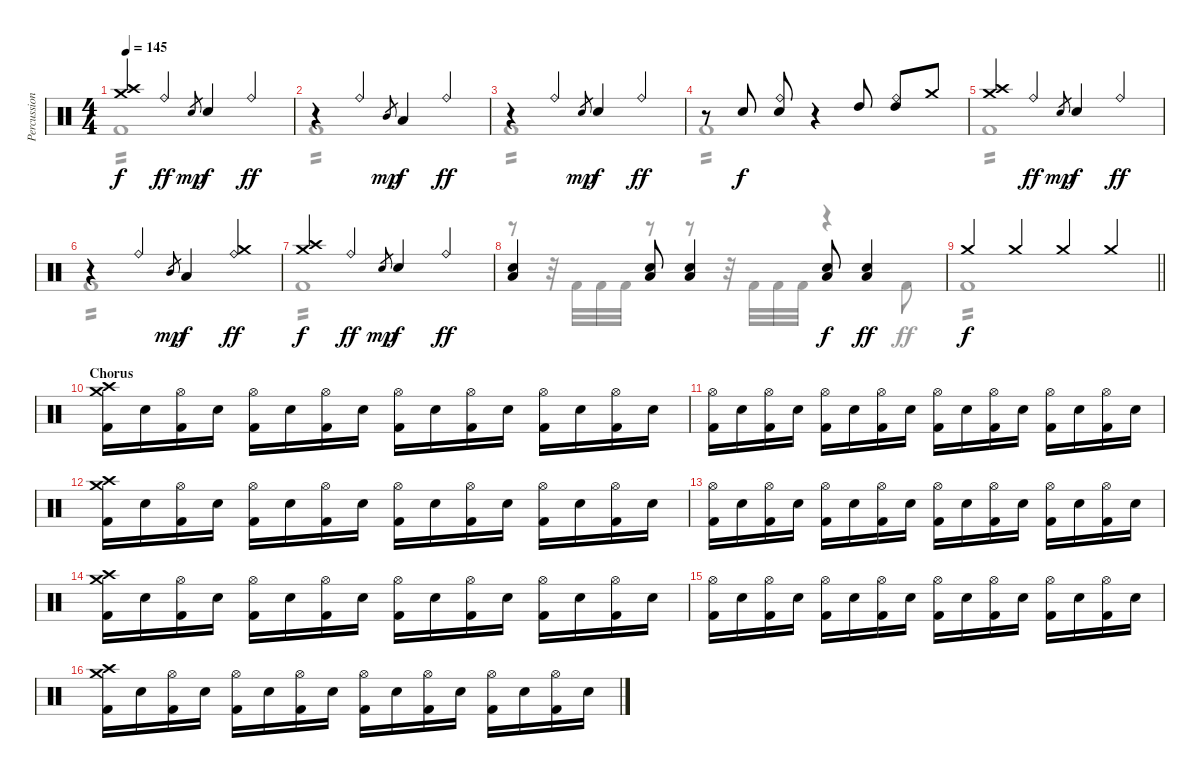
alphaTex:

\track ("Percussion" "Percussion") {instrument percussion}
\staff {score}
\articulation defaults
\voice
\ts (4 4)
\tempo 145
\clef neutral
\ks c
("Crash medium (hit)" "Crash high (hit)").4{dy f} "Ride (bell)".4{dy ff} "Electric Snare (hit)".8{gr dy mp} "Electric Snare (hit)".4{dy f} "Ride (bell)".4{dy ff} |
r.4 "Ride (bell)".4 "Mid Tom (hit)".8{gr dy mp} "Low Tom (hit)".4{dy f} "Ride (bell)".4{dy ff} |
r.4 "Ride (bell)".4 "Electric Snare (hit)".8{gr dy mp} "Electric Snare (hit)".4{dy f} "Ride (bell)".4{dy ff} |
r.8 "Electric Snare (hit)".8{dy f} ("Ride (bell)" "Electric Snare (hit)").8 r.4 "High Tom (hit)".8 ("Ride (bell)" "High Tom (hit)").8 "Crash medium (hit)".8 |
("Crash medium (hit)" "Crash high (hit)").4 "Ride (bell)".4{dy ff} "Electric Snare (hit)".8{gr dy mp} "Electric Snare (hit)".4{dy f} "Ride (bell)".4{dy ff} |
r.4 "Ride (bell)".4 "Mid Tom (hit)".8{gr dy mp} "Low Tom (hit)".4{dy f} ("Ride (bell)" "Crash medium (hit)").4{dy ff} |
("Crash medium (hit)" "Crash high (hit)").4{dy f} "Ride (bell)".4{dy ff} "Electric Snare (hit)".8{gr dy mp} "Electric Snare (hit)".4{dy f} "Ride (bell)".4{dy ff} |
("Low Floor Tom (hit)" "Electric Snare (hit)").4 ("Low Floor Tom (hit)" "Electric Snare (hit)").8 ("Low Floor Tom (hit)" "Electric Snare (hit)").4 ("Low Floor Tom (hit)" "Electric Snare (hit)").8{dy f} ("Low Floor Tom (hit)" "Electric Snare (hit)").4{dy ff} |
\barLineRight lightlight "Crash medium (hit)".4{dy f} "Crash medium (hit)".4 "Crash medium (hit)".4 "Crash medium (hit)".4
|
\section ("" "Chorus")
("Crash medium (hit)" "Crash high (hit)" "Kick (hit) 2").16 "Electric Snare (hit)".16 ("Hi-Hat (open)" "Kick (hit) 2").16 "Electric Snare (hit)".16 ("Hi-Hat (open)" "Kick (hit) 2").16 "Electric Snare (hit)".16 ("Hi-Hat (open)" "Kick (hit) 2").16 "Electric Snare (hit)".16 ("Hi-Hat (open)" "Kick (hit) 2").16 "Electric Snare (hit)".16 ("Hi-Hat (open)" "Kick (hit) 2").16 "Electric Snare (hit)".16 ("Hi-Hat (open)" "Kick (hit) 2").16 "Electric Snare (hit)".16 ("Hi-Hat (open)" "Kick (hit) 2").16 "Electric Snare (hit)".16 |
("Hi-Hat (open)" "Kick (hit) 2").16 "Electric Snare (hit)".16 ("Hi-Hat (open)" "Kick (hit) 2").16 "Electric Snare (hit)".16 ("Hi-Hat (open)" "Kick (hit) 2").16 "Electric Snare (hit)".16 ("Hi-Hat (open)" "Kick (hit) 2").16 "Electric Snare (hit)".16 ("Hi-Hat (open)" "Kick (hit) 2").16 "Electric Snare (hit)".16 ("Hi-Hat (open)" "Kick (hit) 2").16 "Electric Snare (hit)".16 ("Hi-Hat (open)" "Kick (hit) 2").16 "Electric Snare (hit)".16 ("Hi-Hat (open)" "Kick (hit) 2").16 "Electric Snare (hit)".16 |
("Crash medium (hit)" "Crash high (hit)" "Kick (hit) 2").16 "Electric Snare (hit)".16 ("Hi-Hat (open)" "Kick (hit) 2").16 "Electric Snare (hit)".16 ("Hi-Hat (open)" "Kick (hit) 2").16 "Electric Snare (hit)".16 ("Hi-Hat (open)" "Kick (hit) 2").16 "Electric Snare (hit)".16 ("Hi-Hat (open)" "Kick (hit) 2").16 "Electric Snare (hit)".16 ("Hi-Hat (open)" "Kick (hit) 2").16 "Electric Snare (hit)".16 ("Hi-Hat (open)" "Kick (hit) 2").16 "Electric Snare (hit)".16 ("Hi-Hat (open)" "Kick (hit) 2").16 "Electric Snare (hit)".16 |
("Hi-Hat (open)" "Kick (hit) 2").16 "Electric Snare (hit)".16 ("Hi-Hat (open)" "Kick (hit) 2").16 "Electric Snare (hit)".16 ("Hi-Hat (open)" "Kick (hit) 2").16 "Electric Snare (hit)".16 ("Hi-Hat (open)" "Kick (hit) 2").16 "Electric Snare (hit)".16 ("Hi-Hat (open)" "Kick (hit) 2").16 "Electric Snare (hit)".16 ("Hi-Hat (open)" "Kick (hit) 2").16 "Electric Snare (hit)".16 ("Hi-Hat (open)" "Kick (hit) 2").16 "Electric Snare (hit)".16 ("Hi-Hat (open)" "Kick (hit) 2").16 "Electric Snare (hit)".16 |
("Crash medium (hit)" "Crash high (hit)" "Kick (hit) 2").16 "Electric Snare (hit)".16 ("Hi-Hat (open)" "Kick (hit) 2").16 "Electric Snare (hit)".16 ("Hi-Hat (open)" "Kick (hit) 2").16 "Electric Snare (hit)".16 ("Hi-Hat (open)" "Kick (hit) 2").16 "Electric Snare (hit)".16 ("Hi-Hat (open)" "Kick (hit) 2").16 "Electric Snare (hit)".16 ("Hi-Hat (open)" "Kick (hit) 2").16 "Electric Snare (hit)".16 ("Hi-Hat (open)" "Kick (hit) 2").16 "Electric Snare (hit)".16 ("Hi-Hat (open)" "Kick (hit) 2").16 "Electric Snare (hit)".16 |
("Hi-Hat (open)" "Kick (hit) 2").16 "Electric Snare (hit)".16 ("Hi-Hat (open)" "Kick (hit) 2").16 "Electric Snare (hit)".16 ("Hi-Hat (open)" "Kick (hit) 2").16 "Electric Snare (hit)".16 ("Hi-Hat (open)" "Kick (hit) 2").16 "Electric Snare (hit)".16 ("Hi-Hat (open)" "Kick (hit) 2").16 "Electric Snare (hit)".16 ("Hi-Hat (open)" "Kick (hit) 2").16 "Electric Snare (hit)".16 ("Hi-Hat (open)" "Kick (hit) 2").16 "Electric Snare (hit)".16 ("Hi-Hat (open)" "Kick (hit) 2").16 "Electric Snare (hit)".16 |
("Crash medium (hit)" "Crash high (hit)" "Kick (hit) 2").16 "Electric Snare (hit)".16 ("Hi-Hat (open)" "Kick (hit) 2").16 "Electric Snare (hit)".16 ("Hi-Hat (open)" "Kick (hit) 2").16 "Electric Snare (hit)".16 ("Hi-Hat (open)" "Kick (hit) 2").16 "Electric Snare (hit)".16 ("Hi-Hat (open)" "Kick (hit) 2").16 "Electric Snare (hit)".16 ("Hi-Hat (open)" "Kick (hit) 2").16 "Electric Snare (hit)".16 ("Hi-Hat (open)" "Kick (hit) 2").16 "Electric Snare (hit)".16 ("Hi-Hat (open)" "Kick (hit) 2").16 "Electric Snare (hit)".16
\voice
\clef neutral
\ottava regular
\simile none
\ks c "Kick (hit) 2".1{tp 2 dy f}
|
"Kick (hit) 2".1{tp 2} |
"Kick (hit) 2".1{tp 2} |
"Kick (hit) 2".1{tp 2} |
"Kick (hit) 2".1{tp 2} |
"Kick (hit) 2".1{tp 2} |
"Kick (hit) 2".1{tp 2} |
r.8 r.32 "Kick (hit) 2".32 "Kick (hit) 2".32 "Kick (hit) 2".32 r.8 r.8 r.32 "Kick (hit) 2".32 "Kick (hit) 2".32 "Kick (hit) 2".32 r.4 "Kick (hit) 2".8{dy ff} |
\barLineRight lightlight "Kick (hit) 2".1{tp 2 dy f}
|
|
|
|
|
|
|
